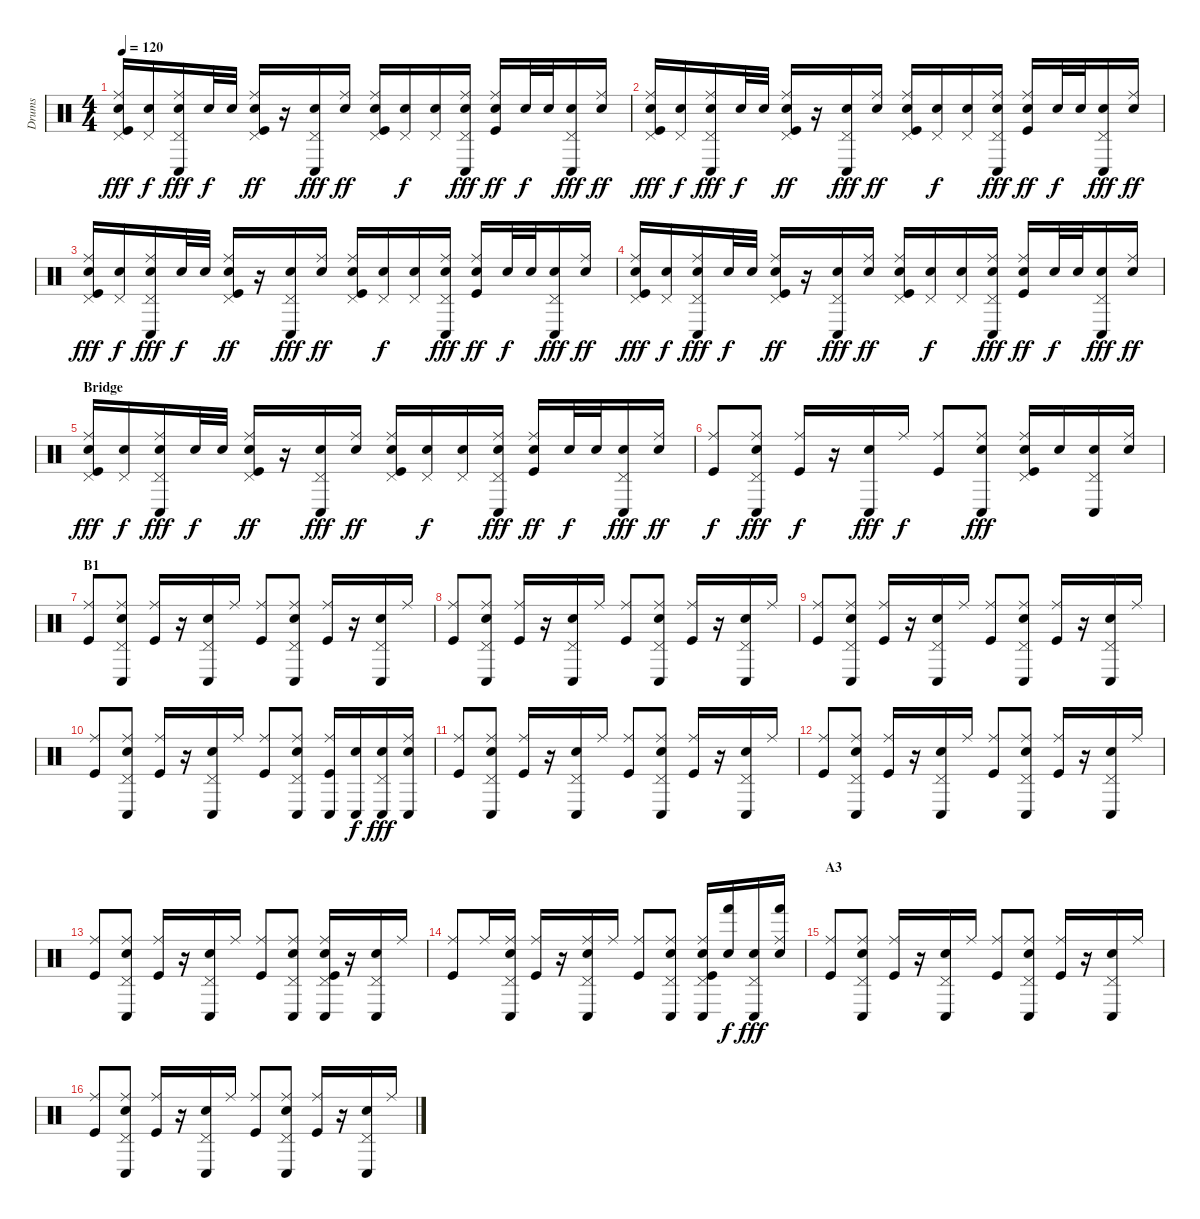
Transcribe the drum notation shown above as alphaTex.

\track ("Drums" "Drums") {instrument percussion}
\staff {score}
\articulation defaults
\ts (4 4)
\tempo 120
\clef neutral
\ks c
("Ride (middle)" "Pedal Hi-Hat (hit)" "Electric Snare (hit)" "Kick (hit)").16{dy fff} ("Pedal Hi-Hat (hit)" "Electric Snare (hit)").16{dy f} ("Ride (middle)" "Pedal Hi-Hat (hit)" "Conga low (hit)" "Electric Snare (hit)").16{dy fff} "Electric Snare (hit)".32{dy f} "Electric Snare (hit)".32 ("Ride (middle)" "Pedal Hi-Hat (hit)" "Electric Snare (hit)" "Kick (hit)").16{dy ff} r.16 ("Pedal Hi-Hat (hit)" "Conga low (hit)" "Electric Snare (hit)").16{dy fff} ("Ride (middle)" "Electric Snare (hit)").16{dy ff} ("Ride (middle)" "Pedal Hi-Hat (hit)" "Electric Snare (hit)" "Kick (hit)").16 ("Pedal Hi-Hat (hit)" "Electric Snare (hit)").16{dy f} ("Pedal Hi-Hat (hit)" "Electric Snare (hit)").16 ("Ride (middle)" "Pedal Hi-Hat (hit)" "Conga low (hit)" "Electric Snare (hit)").16{dy fff} ("Ride (middle)" "Electric Snare (hit)" "Kick (hit)").16{dy ff} "Electric Snare (hit)".32{dy f} "Electric Snare (hit)".32 ("Pedal Hi-Hat (hit)" "Conga low (hit)" "Electric Snare (hit)").16{dy fff} ("Ride (middle)" "Electric Snare (hit)").16{dy ff} |
("Ride (middle)" "Pedal Hi-Hat (hit)" "Electric Snare (hit)" "Kick (hit)").16{dy fff} ("Pedal Hi-Hat (hit)" "Electric Snare (hit)").16{dy f} ("Ride (middle)" "Pedal Hi-Hat (hit)" "Conga low (hit)" "Electric Snare (hit)").16{dy fff} "Electric Snare (hit)".32{dy f} "Electric Snare (hit)".32 ("Ride (middle)" "Pedal Hi-Hat (hit)" "Electric Snare (hit)" "Kick (hit)").16{dy ff} r.16 ("Pedal Hi-Hat (hit)" "Conga low (hit)" "Electric Snare (hit)").16{dy fff} ("Ride (middle)" "Electric Snare (hit)").16{dy ff} ("Ride (middle)" "Pedal Hi-Hat (hit)" "Electric Snare (hit)" "Kick (hit)").16 ("Pedal Hi-Hat (hit)" "Electric Snare (hit)").16{dy f} ("Pedal Hi-Hat (hit)" "Electric Snare (hit)").16 ("Ride (middle)" "Pedal Hi-Hat (hit)" "Conga low (hit)" "Electric Snare (hit)").16{dy fff} ("Ride (middle)" "Electric Snare (hit)" "Kick (hit)").16{dy ff} "Electric Snare (hit)".32{dy f} "Electric Snare (hit)".32 ("Pedal Hi-Hat (hit)" "Conga low (hit)" "Electric Snare (hit)").16{dy fff} ("Ride (middle)" "Electric Snare (hit)").16{dy ff} |
("Ride (middle)" "Pedal Hi-Hat (hit)" "Electric Snare (hit)" "Kick (hit)").16{dy fff} ("Pedal Hi-Hat (hit)" "Electric Snare (hit)").16{dy f} ("Ride (middle)" "Pedal Hi-Hat (hit)" "Conga low (hit)" "Electric Snare (hit)").16{dy fff} "Electric Snare (hit)".32{dy f} "Electric Snare (hit)".32 ("Ride (middle)" "Pedal Hi-Hat (hit)" "Electric Snare (hit)" "Kick (hit)").16{dy ff} r.16 ("Pedal Hi-Hat (hit)" "Conga low (hit)" "Electric Snare (hit)").16{dy fff} ("Ride (middle)" "Electric Snare (hit)").16{dy ff} ("Ride (middle)" "Pedal Hi-Hat (hit)" "Electric Snare (hit)" "Kick (hit)").16 ("Pedal Hi-Hat (hit)" "Electric Snare (hit)").16{dy f} ("Pedal Hi-Hat (hit)" "Electric Snare (hit)").16 ("Ride (middle)" "Pedal Hi-Hat (hit)" "Conga low (hit)" "Electric Snare (hit)").16{dy fff} ("Ride (middle)" "Electric Snare (hit)" "Kick (hit)").16{dy ff} "Electric Snare (hit)".32{dy f} "Electric Snare (hit)".32 ("Pedal Hi-Hat (hit)" "Conga low (hit)" "Electric Snare (hit)").16{dy fff} ("Ride (middle)" "Electric Snare (hit)").16{dy ff} |
("Ride (middle)" "Pedal Hi-Hat (hit)" "Electric Snare (hit)" "Kick (hit)").16{dy fff} ("Pedal Hi-Hat (hit)" "Electric Snare (hit)").16{dy f} ("Ride (middle)" "Pedal Hi-Hat (hit)" "Conga low (hit)" "Electric Snare (hit)").16{dy fff} "Electric Snare (hit)".32{dy f} "Electric Snare (hit)".32 ("Ride (middle)" "Pedal Hi-Hat (hit)" "Electric Snare (hit)" "Kick (hit)").16{dy ff} r.16 ("Pedal Hi-Hat (hit)" "Conga low (hit)" "Electric Snare (hit)").16{dy fff} ("Ride (middle)" "Electric Snare (hit)").16{dy ff} ("Ride (middle)" "Pedal Hi-Hat (hit)" "Electric Snare (hit)" "Kick (hit)").16 ("Pedal Hi-Hat (hit)" "Electric Snare (hit)").16{dy f} ("Pedal Hi-Hat (hit)" "Electric Snare (hit)").16 ("Ride (middle)" "Pedal Hi-Hat (hit)" "Conga low (hit)" "Electric Snare (hit)").16{dy fff} ("Ride (middle)" "Electric Snare (hit)" "Kick (hit)").16{dy ff} "Electric Snare (hit)".32{dy f} "Electric Snare (hit)".32 ("Pedal Hi-Hat (hit)" "Conga low (hit)" "Electric Snare (hit)").16{dy fff} ("Ride (middle)" "Electric Snare (hit)").16{dy ff} |
\section ("" "Bridge")
("Ride (middle)" "Pedal Hi-Hat (hit)" "Electric Snare (hit)" "Kick (hit)").16{dy fff} ("Pedal Hi-Hat (hit)" "Electric Snare (hit)").16{dy f} ("Ride (middle)" "Pedal Hi-Hat (hit)" "Conga low (hit)" "Electric Snare (hit)").16{dy fff} "Electric Snare (hit)".32{dy f} "Electric Snare (hit)".32 ("Ride (middle)" "Pedal Hi-Hat (hit)" "Electric Snare (hit)" "Kick (hit)").16{dy ff} r.16 ("Pedal Hi-Hat (hit)" "Conga low (hit)" "Electric Snare (hit)").16{dy fff} ("Ride (middle)" "Electric Snare (hit)").16{dy ff} ("Ride (middle)" "Pedal Hi-Hat (hit)" "Electric Snare (hit)" "Kick (hit)").16 ("Pedal Hi-Hat (hit)" "Electric Snare (hit)").16{dy f} ("Pedal Hi-Hat (hit)" "Electric Snare (hit)").16 ("Ride (middle)" "Pedal Hi-Hat (hit)" "Conga low (hit)" "Electric Snare (hit)").16{dy fff} ("Ride (middle)" "Electric Snare (hit)" "Kick (hit)").16{dy ff} "Electric Snare (hit)".32{dy f} "Electric Snare (hit)".32 ("Pedal Hi-Hat (hit)" "Conga low (hit)" "Electric Snare (hit)").16{dy fff} ("Ride (middle)" "Electric Snare (hit)").16{dy ff} |
("Ride (middle)" "Kick (hit)").8{dy f} ("Ride (middle)" "Pedal Hi-Hat (hit)" "Conga low (hit)" "Electric Snare (hit)").8{dy fff} ("Ride (middle)" "Kick (hit)").16{dy f} r.16 ("Conga low (hit)" "Electric Snare (hit)").16{dy fff} "Ride (middle)".16{dy f} ("Ride (middle)" "Kick (hit)").8 ("Ride (middle)" "Conga low (hit)" "Electric Snare (hit)").8{dy fff} ("Ride (middle)" "Pedal Hi-Hat (hit)" "Electric Snare (hit)" "Kick (hit)").16 "Electric Snare (hit)".16 ("Pedal Hi-Hat (hit)" "Conga low (hit)" "Electric Snare (hit)").16 ("Ride (middle)" "Electric Snare (hit)").16 |
\section ("" "B1")
("Ride (middle)" "Kick (hit)").8 ("Ride (middle)" "Pedal Hi-Hat (hit)" "Conga low (hit)" "Electric Snare (hit)").8 ("Ride (middle)" "Kick (hit)").16 r.16 ("Pedal Hi-Hat (hit)" "Conga low (hit)" "Electric Snare (hit)").16 "Ride (middle)".16 ("Ride (middle)" "Kick (hit)").8 ("Ride (middle)" "Pedal Hi-Hat (hit)" "Conga low (hit)" "Electric Snare (hit)").8 ("Ride (middle)" "Kick (hit)").16 r.16 ("Pedal Hi-Hat (hit)" "Conga low (hit)" "Electric Snare (hit)").16 "Ride (middle)".16 |
("Ride (middle)" "Kick (hit)").8 ("Ride (middle)" "Pedal Hi-Hat (hit)" "Conga low (hit)" "Electric Snare (hit)").8 ("Ride (middle)" "Kick (hit)").16 r.16 ("Pedal Hi-Hat (hit)" "Conga low (hit)" "Electric Snare (hit)").16 "Ride (middle)".16 ("Ride (middle)" "Kick (hit)").8 ("Ride (middle)" "Pedal Hi-Hat (hit)" "Conga low (hit)" "Electric Snare (hit)").8 ("Ride (middle)" "Kick (hit)").16 r.16 ("Pedal Hi-Hat (hit)" "Conga low (hit)" "Electric Snare (hit)").16 "Ride (middle)".16 |
("Ride (middle)" "Kick (hit)").8 ("Ride (middle)" "Pedal Hi-Hat (hit)" "Conga low (hit)" "Electric Snare (hit)").8 ("Ride (middle)" "Kick (hit)").16 r.16 ("Pedal Hi-Hat (hit)" "Conga low (hit)" "Electric Snare (hit)").16 "Ride (middle)".16 ("Ride (middle)" "Kick (hit)").8 ("Ride (middle)" "Pedal Hi-Hat (hit)" "Conga low (hit)" "Electric Snare (hit)").8 ("Ride (middle)" "Kick (hit)").16 r.16 ("Pedal Hi-Hat (hit)" "Conga low (hit)" "Electric Snare (hit)").16 "Ride (middle)".16 |
("Ride (middle)" "Kick (hit)").8 ("Ride (middle)" "Pedal Hi-Hat (hit)" "Conga low (hit)" "Electric Snare (hit)").8 ("Ride (middle)" "Kick (hit)").16 r.16 ("Pedal Hi-Hat (hit)" "Conga low (hit)" "Electric Snare (hit)").16 "Ride (middle)".16 ("Ride (middle)" "Kick (hit)").8 ("Ride (middle)" "Pedal Hi-Hat (hit)" "Conga low (hit)" "Electric Snare (hit)").8 ("Ride (middle)" "Conga low (hit)" "Kick (hit)").16 ("Conga low (hit)" "Electric Snare (hit)").16{dy f} ("Pedal Hi-Hat (hit)" "Conga low (hit)" "Electric Snare (hit)").16{dy fff} ("Ride (middle)" "Conga low (hit)" "Electric Snare (hit)").16 |
("Ride (middle)" "Kick (hit)").8 ("Ride (middle)" "Pedal Hi-Hat (hit)" "Conga low (hit)" "Electric Snare (hit)").8 ("Ride (middle)" "Kick (hit)").16 r.16 ("Pedal Hi-Hat (hit)" "Conga low (hit)" "Electric Snare (hit)").16 "Ride (middle)".16 ("Ride (middle)" "Kick (hit)").8 ("Ride (middle)" "Pedal Hi-Hat (hit)" "Conga low (hit)" "Electric Snare (hit)").8 ("Ride (middle)" "Kick (hit)").16 r.16 ("Pedal Hi-Hat (hit)" "Conga low (hit)" "Electric Snare (hit)").16 "Ride (middle)".16 |
("Ride (middle)" "Kick (hit)").8 ("Ride (middle)" "Pedal Hi-Hat (hit)" "Conga low (hit)" "Electric Snare (hit)").8 ("Ride (middle)" "Kick (hit)").16 r.16 ("Pedal Hi-Hat (hit)" "Conga low (hit)" "Electric Snare (hit)").16 "Ride (middle)".16 ("Ride (middle)" "Kick (hit)").8 ("Ride (middle)" "Pedal Hi-Hat (hit)" "Conga low (hit)" "Electric Snare (hit)").8 ("Ride (middle)" "Kick (hit)").16 r.16 ("Pedal Hi-Hat (hit)" "Conga low (hit)" "Electric Snare (hit)").16 "Ride (middle)".16 |
("Ride (middle)" "Kick (hit)").8 ("Ride (middle)" "Pedal Hi-Hat (hit)" "Conga low (hit)" "Electric Snare (hit)").8 ("Ride (middle)" "Kick (hit)").16 r.16 ("Pedal Hi-Hat (hit)" "Conga low (hit)" "Electric Snare (hit)").16 "Ride (middle)".16 ("Ride (middle)" "Kick (hit)").8 ("Ride (middle)" "Pedal Hi-Hat (hit)" "Conga low (hit)" "Electric Snare (hit)").8 ("Ride (middle)" "Pedal Hi-Hat (hit)" "Conga low (hit)" "Electric Snare (hit)" "Kick (hit)").16 r.16 ("Pedal Hi-Hat (hit)" "Conga low (hit)" "Electric Snare (hit)").16 "Ride (middle)".16 |
("Ride (middle)" "Kick (hit)").8 "Ride (middle)".16 ("Ride (middle)" "Pedal Hi-Hat (hit)" "Conga low (hit)" "Electric Snare (hit)").16 ("Ride (middle)" "Kick (hit)").16 r.16 ("Ride (middle)" "Pedal Hi-Hat (hit)" "Conga low (hit)" "Electric Snare (hit)").16 "Ride (middle)".16 ("Ride (middle)" "Kick (hit)").8 ("Ride (middle)" "Pedal Hi-Hat (hit)" "Conga low (hit)" "Electric Snare (hit)").8 ("Ride (middle)" "Pedal Hi-Hat (hit)" "Conga low (hit)" "Electric Snare (hit)" "Kick (hit)").16 ("Hand (hit)" "Electric Snare (hit)").16{dy f} ("Pedal Hi-Hat (hit)" "Conga low (hit)" "Electric Snare (hit)").16{dy fff} ("Ride (middle)" "Hand (hit)" "Electric Snare (hit)").16 |
\section ("" "A3")
("Ride (middle)" "Kick (hit)").8 ("Ride (middle)" "Pedal Hi-Hat (hit)" "Conga low (hit)" "Electric Snare (hit)").8 ("Ride (middle)" "Kick (hit)").16 r.16 ("Pedal Hi-Hat (hit)" "Conga low (hit)" "Electric Snare (hit)").16 "Ride (middle)".16 ("Ride (middle)" "Kick (hit)").8 ("Ride (middle)" "Pedal Hi-Hat (hit)" "Conga low (hit)" "Electric Snare (hit)").8 ("Ride (middle)" "Kick (hit)").16 r.16 ("Pedal Hi-Hat (hit)" "Conga low (hit)" "Electric Snare (hit)").16 "Ride (middle)".16 |
("Ride (middle)" "Kick (hit)").8 ("Ride (middle)" "Pedal Hi-Hat (hit)" "Conga low (hit)" "Electric Snare (hit)").8 ("Ride (middle)" "Kick (hit)").16 r.16 ("Pedal Hi-Hat (hit)" "Conga low (hit)" "Electric Snare (hit)").16 "Ride (middle)".16 ("Ride (middle)" "Kick (hit)").8 ("Ride (middle)" "Pedal Hi-Hat (hit)" "Conga low (hit)" "Electric Snare (hit)").8 ("Ride (middle)" "Kick (hit)").16 r.16 ("Pedal Hi-Hat (hit)" "Conga low (hit)" "Electric Snare (hit)").16 "Ride (middle)".16
